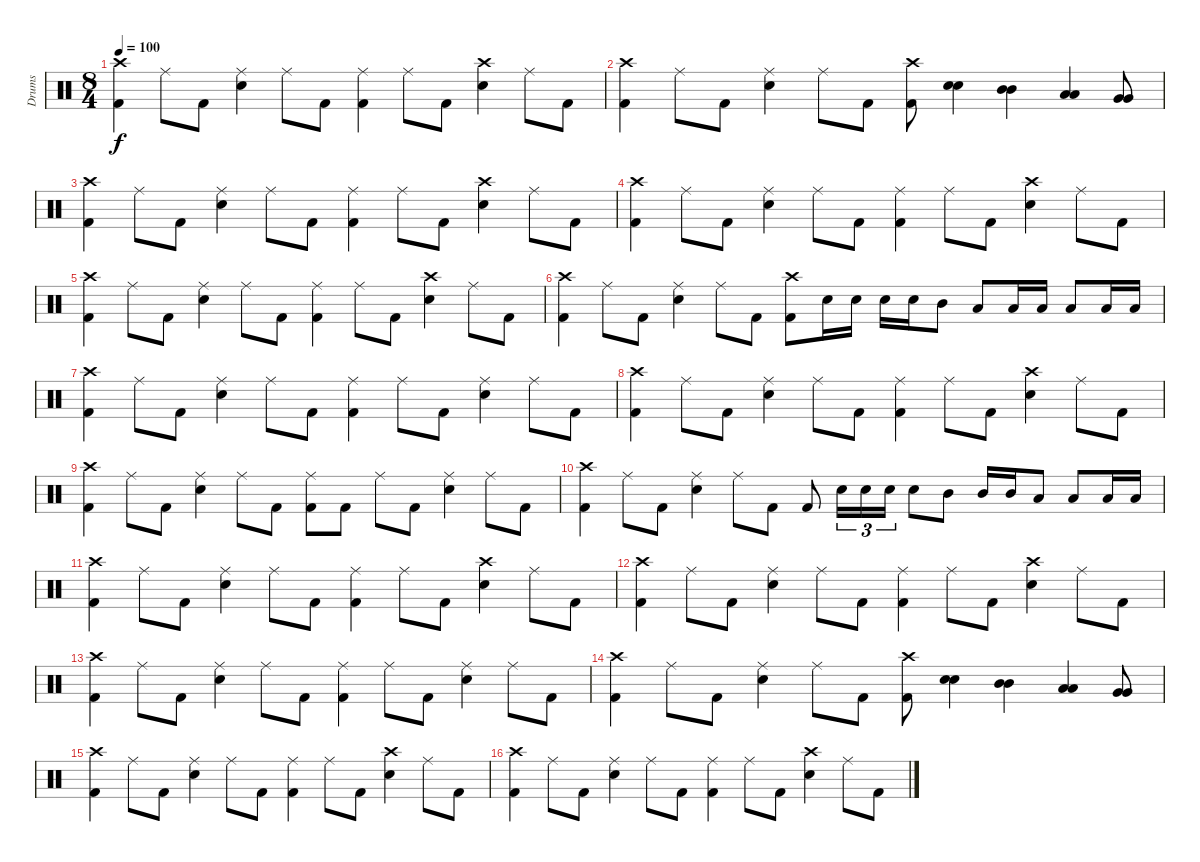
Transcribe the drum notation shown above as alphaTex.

\track ("Drums" "Drums") {instrument percussion}
\staff {score}
\articulation defaults
\ts (8 4)
\tempo 100
\clef neutral
\ks c
("Crash high (hit)" "Kick (hit) 2").4{dy f} "Ride (middle)".8 "Kick (hit) 2".8 ("Ride (middle)" "Electric Snare (hit)").4 "Ride (middle)".8 "Kick (hit) 2".8 ("Ride (middle)" "Kick (hit) 2").4 "Ride (middle)".8 "Kick (hit) 2".8 ("Crash high (hit)" "Electric Snare (hit)").4 "Ride (middle)".8 "Kick (hit) 2".8 |
("Crash high (hit)" "Kick (hit) 2").4 "Ride (middle)".8 "Kick (hit) 2".8 ("Ride (middle)" "Electric Snare (hit)").4 "Ride (middle)".8 "Kick (hit) 2".8 ("Crash high (hit)" "Kick (hit) 2").8 ("Electric Snare (hit)" "Electric Snare (hit)").4{bd 30} ("Mid Tom (hit)" "Mid Tom (hit)").4{bd 30} ("Low Tom (hit)" "Low Tom (hit)").4{bd 30} ("Very Low Tom (hit)" "Very Low Tom (hit)").8{bd 60} |
("Crash high (hit)" "Kick (hit) 2").4 "Ride (middle)".8 "Kick (hit) 2".8 ("Ride (middle)" "Electric Snare (hit)").4 "Ride (middle)".8 "Kick (hit) 2".8 ("Ride (middle)" "Kick (hit) 2").4 "Ride (middle)".8 "Kick (hit) 2".8 ("Crash high (hit)" "Electric Snare (hit)").4 "Ride (middle)".8 "Kick (hit) 2".8 |
("Crash high (hit)" "Kick (hit) 2").4 "Ride (middle)".8 "Kick (hit) 2".8 ("Ride (middle)" "Electric Snare (hit)").4 "Ride (middle)".8 "Kick (hit) 2".8 ("Ride (middle)" "Kick (hit) 2").4 "Ride (middle)".8 "Kick (hit) 2".8 ("Crash high (hit)" "Electric Snare (hit)").4 "Ride (middle)".8 "Kick (hit) 2".8 |
("Crash high (hit)" "Kick (hit) 2").4 "Ride (middle)".8 "Kick (hit) 2".8 ("Ride (middle)" "Electric Snare (hit)").4 "Ride (middle)".8 "Kick (hit) 2".8 ("Ride (middle)" "Kick (hit) 2").4 "Ride (middle)".8 "Kick (hit) 2".8 ("Crash high (hit)" "Electric Snare (hit)").4 "Ride (middle)".8 "Kick (hit) 2".8 |
("Crash high (hit)" "Kick (hit) 2").4 "Ride (middle)".8 "Kick (hit) 2".8 ("Ride (middle)" "Electric Snare (hit)").4 "Ride (middle)".8 "Kick (hit) 2".8 ("Crash high (hit)" "Kick (hit) 2").8 "Electric Snare (hit)".16 "Electric Snare (hit)".16 "Electric Snare (hit)".16 "Electric Snare (hit)".16 "Mid Tom (hit)".8 "Low Tom (hit)".8 "Low Tom (hit)".16 "Low Tom (hit)".16 "Low Tom (hit)".8 "Low Tom (hit)".16 "Low Tom (hit)".16 |
("Crash high (hit)" "Kick (hit) 2").4 "Ride (middle)".8 "Kick (hit) 2".8 ("Ride (middle)" "Electric Snare (hit)").4 "Ride (middle)".8 "Kick (hit) 2".8 ("Ride (middle)" "Kick (hit) 2").4 "Ride (middle)".8 "Kick (hit) 2".8 ("Ride (middle)" "Electric Snare (hit)").4 "Ride (middle)".8 "Kick (hit) 2".8 |
("Crash high (hit)" "Kick (hit) 2").4 "Ride (middle)".8 "Kick (hit) 2".8 ("Ride (middle)" "Electric Snare (hit)").4 "Ride (middle)".8 "Kick (hit) 2".8 ("Ride (middle)" "Kick (hit) 2").4 "Ride (middle)".8 "Kick (hit) 2".8 ("Crash high (hit)" "Electric Snare (hit)").4 "Ride (middle)".8 "Kick (hit) 2".8 |
("Crash high (hit)" "Kick (hit) 2").4 "Ride (middle)".8 "Kick (hit) 2".8 ("Ride (middle)" "Electric Snare (hit)").4 "Ride (middle)".8 "Kick (hit) 2".8 ("Ride (middle)" "Kick (hit) 2").8 "Kick (hit) 2".8 "Ride (middle)".8 "Kick (hit) 2".8 ("Ride (middle)" "Electric Snare (hit)").4 "Ride (middle)".8 "Kick (hit) 2".8 |
("Crash high (hit)" "Kick (hit) 2").4 "Ride (middle)".8 "Kick (hit) 2".8 ("Ride (middle)" "Electric Snare (hit)").4 "Ride (middle)".8 "Kick (hit) 2".8 "Kick (hit) 2".8 "Electric Snare (hit)".16{tu (3 2)} "Electric Snare (hit)".16{tu (3 2)} "Electric Snare (hit)".16{tu (3 2)} "Electric Snare (hit)".8 "Mid Tom (hit)".8 "Mid Tom (hit)".16 "Mid Tom (hit)".16 "Low Tom (hit)".8 "Low Tom (hit)".8 "Low Tom (hit)".16 "Low Tom (hit)".16 |
("Crash high (hit)" "Kick (hit) 2").4 "Ride (middle)".8 "Kick (hit) 2".8 ("Ride (middle)" "Electric Snare (hit)").4 "Ride (middle)".8 "Kick (hit) 2".8 ("Ride (middle)" "Kick (hit) 2").4 "Ride (middle)".8 "Kick (hit) 2".8 ("Crash high (hit)" "Electric Snare (hit)").4 "Ride (middle)".8 "Kick (hit) 2".8 |
("Crash high (hit)" "Kick (hit) 2").4 "Ride (middle)".8 "Kick (hit) 2".8 ("Ride (middle)" "Electric Snare (hit)").4 "Ride (middle)".8 "Kick (hit) 2".8 ("Ride (middle)" "Kick (hit) 2").4 "Ride (middle)".8 "Kick (hit) 2".8 ("Crash high (hit)" "Electric Snare (hit)").4 "Ride (middle)".8 "Kick (hit) 2".8 |
("Crash high (hit)" "Kick (hit) 2").4 "Ride (middle)".8 "Kick (hit) 2".8 ("Ride (middle)" "Electric Snare (hit)").4 "Ride (middle)".8 "Kick (hit) 2".8 ("Ride (middle)" "Kick (hit) 2").4 "Ride (middle)".8 "Kick (hit) 2".8 ("Ride (middle)" "Electric Snare (hit)").4 "Ride (middle)".8 "Kick (hit) 2".8 |
("Crash high (hit)" "Kick (hit) 2").4 "Ride (middle)".8 "Kick (hit) 2".8 ("Ride (middle)" "Electric Snare (hit)").4 "Ride (middle)".8 "Kick (hit) 2".8 ("Crash high (hit)" "Kick (hit) 2").8 ("Electric Snare (hit)" "Electric Snare (hit)").4{bd 30} ("Mid Tom (hit)" "Mid Tom (hit)").4{bd 30} ("Low Tom (hit)" "Low Tom (hit)").4{bd 30} ("Very Low Tom (hit)" "Very Low Tom (hit)").8{bd 60} |
("Crash high (hit)" "Kick (hit) 2").4 "Ride (middle)".8 "Kick (hit) 2".8 ("Ride (middle)" "Electric Snare (hit)").4 "Ride (middle)".8 "Kick (hit) 2".8 ("Ride (middle)" "Kick (hit) 2").4 "Ride (middle)".8 "Kick (hit) 2".8 ("Crash high (hit)" "Electric Snare (hit)").4 "Ride (middle)".8 "Kick (hit) 2".8 |
("Crash high (hit)" "Kick (hit) 2").4 "Ride (middle)".8 "Kick (hit) 2".8 ("Ride (middle)" "Electric Snare (hit)").4 "Ride (middle)".8 "Kick (hit) 2".8 ("Ride (middle)" "Kick (hit) 2").4 "Ride (middle)".8 "Kick (hit) 2".8 ("Crash high (hit)" "Electric Snare (hit)").4 "Ride (middle)".8 "Kick (hit) 2".8
